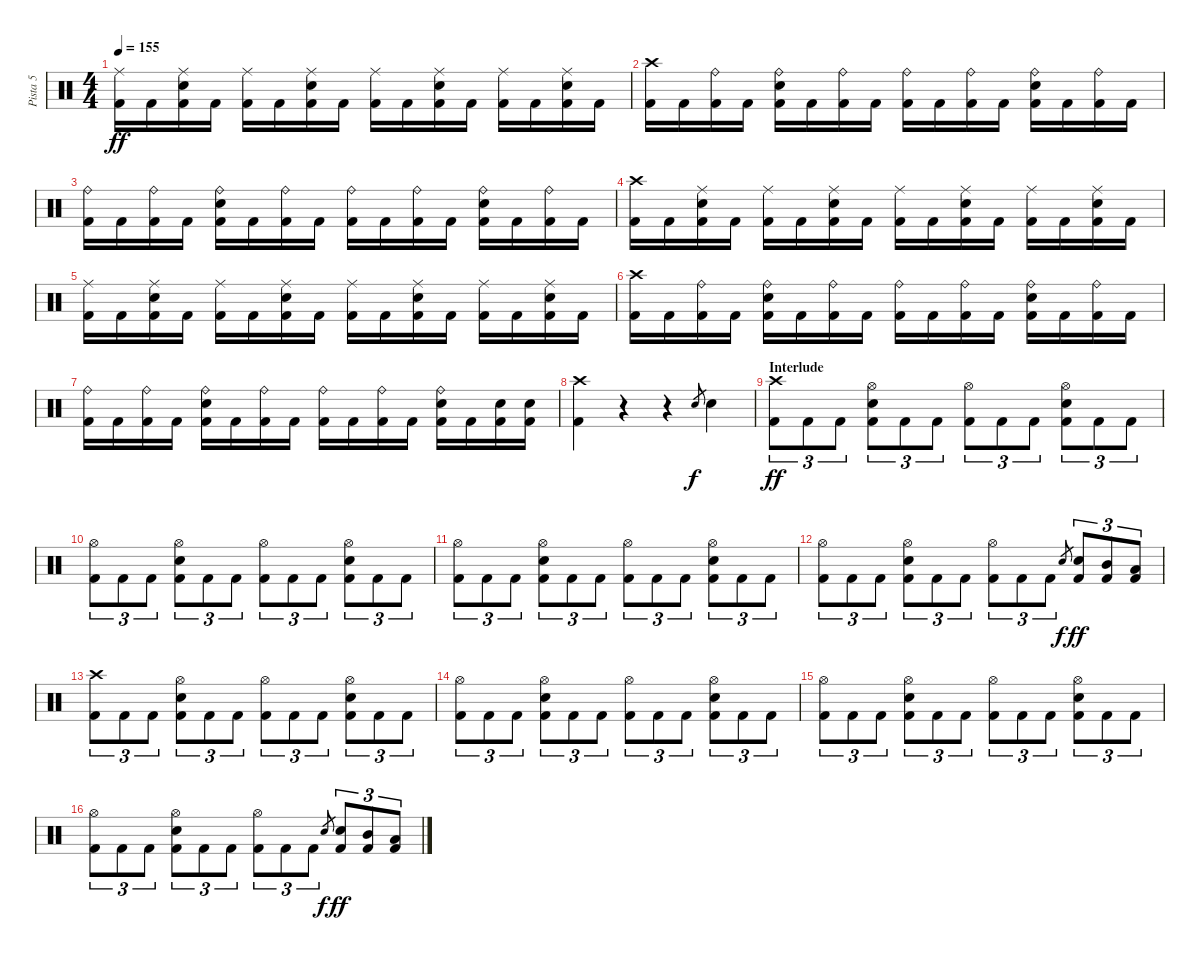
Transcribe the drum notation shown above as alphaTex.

\track ("Pista 5" "Pista 5") {instrument percussion}
\staff {score}
\articulation defaults
\ts (4 4)
\tempo 155
\clef neutral
\ks c
("Ride (middle)" "Kick (hit) 2").16{dy ff} "Kick (hit) 2".16 ("Ride (middle)" "Electric Snare (hit)" "Kick (hit) 2").16 "Kick (hit) 2".16 ("Ride (middle)" "Kick (hit) 2").16 "Kick (hit) 2".16 ("Ride (middle)" "Electric Snare (hit)" "Kick (hit) 2").16 "Kick (hit) 2".16 ("Ride (middle)" "Kick (hit) 2").16 "Kick (hit) 2".16 ("Ride (middle)" "Electric Snare (hit)" "Kick (hit) 2").16 "Kick (hit) 2".16 ("Ride (middle)" "Kick (hit) 2").16 "Kick (hit) 2".16 ("Ride (middle)" "Electric Snare (hit)" "Kick (hit) 2").16 "Kick (hit) 2".16 |
("Crash high (hit)" "Kick (hit) 2").16 "Kick (hit) 2".16 ("Ride (bell)" "Kick (hit) 2").16 "Kick (hit) 2".16 ("Ride (bell)" "Electric Snare (hit)" "Kick (hit) 2").16 "Kick (hit) 2".16 ("Ride (bell)" "Kick (hit) 2").16 "Kick (hit) 2".16 ("Ride (bell)" "Kick (hit) 2").16 "Kick (hit) 2".16 ("Ride (bell)" "Kick (hit) 2").16 "Kick (hit) 2".16 ("Ride (bell)" "Electric Snare (hit)" "Kick (hit) 2").16 "Kick (hit) 2".16 ("Ride (bell)" "Kick (hit) 2").16 "Kick (hit) 2".16 |
("Ride (bell)" "Kick (hit) 2").16 "Kick (hit) 2".16 ("Ride (bell)" "Kick (hit) 2").16 "Kick (hit) 2".16 ("Ride (bell)" "Electric Snare (hit)" "Kick (hit) 2").16 "Kick (hit) 2".16 ("Ride (bell)" "Kick (hit) 2").16 "Kick (hit) 2".16 ("Ride (bell)" "Kick (hit) 2").16 "Kick (hit) 2".16 ("Ride (bell)" "Kick (hit) 2").16 "Kick (hit) 2".16 ("Ride (bell)" "Electric Snare (hit)" "Kick (hit) 2").16 "Kick (hit) 2".16 ("Ride (bell)" "Kick (hit) 2").16 "Kick (hit) 2".16 |
("Crash high (hit)" "Kick (hit) 2").16 "Kick (hit) 2".16 ("Ride (middle)" "Electric Snare (hit)" "Kick (hit) 2").16 "Kick (hit) 2".16 ("Ride (middle)" "Kick (hit) 2").16 "Kick (hit) 2".16 ("Ride (middle)" "Electric Snare (hit)" "Kick (hit) 2").16 "Kick (hit) 2".16 ("Ride (middle)" "Kick (hit) 2").16 "Kick (hit) 2".16 ("Ride (middle)" "Electric Snare (hit)" "Kick (hit) 2").16 "Kick (hit) 2".16 ("Ride (middle)" "Kick (hit) 2").16 "Kick (hit) 2".16 ("Ride (middle)" "Electric Snare (hit)" "Kick (hit) 2").16 "Kick (hit) 2".16 |
("Ride (middle)" "Kick (hit) 2").16 "Kick (hit) 2".16 ("Ride (middle)" "Electric Snare (hit)" "Kick (hit) 2").16 "Kick (hit) 2".16 ("Ride (middle)" "Kick (hit) 2").16 "Kick (hit) 2".16 ("Ride (middle)" "Electric Snare (hit)" "Kick (hit) 2").16 "Kick (hit) 2".16 ("Ride (middle)" "Kick (hit) 2").16 "Kick (hit) 2".16 ("Ride (middle)" "Electric Snare (hit)" "Kick (hit) 2").16 "Kick (hit) 2".16 ("Ride (middle)" "Kick (hit) 2").16 "Kick (hit) 2".16 ("Ride (middle)" "Electric Snare (hit)" "Kick (hit) 2").16 "Kick (hit) 2".16 |
("Crash high (hit)" "Kick (hit) 2").16 "Kick (hit) 2".16 ("Ride (bell)" "Kick (hit) 2").16 "Kick (hit) 2".16 ("Ride (bell)" "Electric Snare (hit)" "Kick (hit) 2").16 "Kick (hit) 2".16 ("Ride (bell)" "Kick (hit) 2").16 "Kick (hit) 2".16 ("Ride (bell)" "Kick (hit) 2").16 "Kick (hit) 2".16 ("Ride (bell)" "Kick (hit) 2").16 "Kick (hit) 2".16 ("Ride (bell)" "Electric Snare (hit)" "Kick (hit) 2").16 "Kick (hit) 2".16 ("Ride (bell)" "Kick (hit) 2").16 "Kick (hit) 2".16 |
("Ride (bell)" "Kick (hit) 2").16 "Kick (hit) 2".16 ("Ride (bell)" "Kick (hit) 2").16 "Kick (hit) 2".16 ("Ride (bell)" "Electric Snare (hit)" "Kick (hit) 2").16 "Kick (hit) 2".16 ("Ride (bell)" "Kick (hit) 2").16 "Kick (hit) 2".16 ("Ride (bell)" "Kick (hit) 2").16 "Kick (hit) 2".16 ("Ride (bell)" "Kick (hit) 2").16 "Kick (hit) 2".16 ("Ride (bell)" "Electric Snare (hit)" "Kick (hit) 2").16 "Kick (hit) 2".16 ("Electric Snare (hit)" "Kick (hit) 2").16 ("Electric Snare (hit)" "Kick (hit) 2").16 |
("Crash high (hit)" "Kick (hit) 2").4 r.4 r.4 "Electric Snare (hit)".8{gr dy f} "Electric Snare (hit)".4 |
\section ("" "Interlude")
("Crash high (hit)" "Kick (hit) 2").8{tu (3 2) dy ff} "Kick (hit) 2".8{tu (3 2)} "Kick (hit) 2".8{tu (3 2)} ("Hi-Hat (open)" "Electric Snare (hit)" "Kick (hit) 2").8{tu (3 2)} "Kick (hit) 2".8{tu (3 2)} "Kick (hit) 2".8{tu (3 2)} ("Hi-Hat (open)" "Kick (hit) 2").8{tu (3 2)} "Kick (hit) 2".8{tu (3 2)} "Kick (hit) 2".8{tu (3 2)} ("Hi-Hat (open)" "Electric Snare (hit)" "Kick (hit) 2").8{tu (3 2)} "Kick (hit) 2".8{tu (3 2)} "Kick (hit) 2".8{tu (3 2)} |
("Hi-Hat (open)" "Kick (hit) 2").8{tu (3 2)} "Kick (hit) 2".8{tu (3 2)} "Kick (hit) 2".8{tu (3 2)} ("Hi-Hat (open)" "Electric Snare (hit)" "Kick (hit) 2").8{tu (3 2)} "Kick (hit) 2".8{tu (3 2)} "Kick (hit) 2".8{tu (3 2)} ("Hi-Hat (open)" "Kick (hit) 2").8{tu (3 2)} "Kick (hit) 2".8{tu (3 2)} "Kick (hit) 2".8{tu (3 2)} ("Hi-Hat (open)" "Electric Snare (hit)" "Kick (hit) 2").8{tu (3 2)} "Kick (hit) 2".8{tu (3 2)} "Kick (hit) 2".8{tu (3 2)} |
("Hi-Hat (open)" "Kick (hit) 2").8{tu (3 2)} "Kick (hit) 2".8{tu (3 2)} "Kick (hit) 2".8{tu (3 2)} ("Hi-Hat (open)" "Electric Snare (hit)" "Kick (hit) 2").8{tu (3 2)} "Kick (hit) 2".8{tu (3 2)} "Kick (hit) 2".8{tu (3 2)} ("Hi-Hat (open)" "Kick (hit) 2").8{tu (3 2)} "Kick (hit) 2".8{tu (3 2)} "Kick (hit) 2".8{tu (3 2)} ("Hi-Hat (open)" "Electric Snare (hit)" "Kick (hit) 2").8{tu (3 2)} "Kick (hit) 2".8{tu (3 2)} "Kick (hit) 2".8{tu (3 2)} |
("Hi-Hat (open)" "Kick (hit) 2").8{tu (3 2)} "Kick (hit) 2".8{tu (3 2)} "Kick (hit) 2".8{tu (3 2)} ("Hi-Hat (open)" "Electric Snare (hit)" "Kick (hit) 2").8{tu (3 2)} "Kick (hit) 2".8{tu (3 2)} "Kick (hit) 2".8{tu (3 2)} ("Hi-Hat (open)" "Kick (hit) 2").8{tu (3 2)} "Kick (hit) 2".8{tu (3 2)} "Kick (hit) 2".8{tu (3 2)} "Electric Snare (hit)".8{gr dy f} ("Electric Snare (hit)" "Kick (hit) 2").8{tu (3 2) dy ff} ("Mid Tom (hit)" "Kick (hit) 2").8{tu (3 2)} ("Low Tom (hit)" "Kick (hit) 2").8{tu (3 2)} |
("Crash high (hit)" "Kick (hit) 2").8{tu (3 2)} "Kick (hit) 2".8{tu (3 2)} "Kick (hit) 2".8{tu (3 2)} ("Hi-Hat (open)" "Electric Snare (hit)" "Kick (hit) 2").8{tu (3 2)} "Kick (hit) 2".8{tu (3 2)} "Kick (hit) 2".8{tu (3 2)} ("Hi-Hat (open)" "Kick (hit) 2").8{tu (3 2)} "Kick (hit) 2".8{tu (3 2)} "Kick (hit) 2".8{tu (3 2)} ("Hi-Hat (open)" "Electric Snare (hit)" "Kick (hit) 2").8{tu (3 2)} "Kick (hit) 2".8{tu (3 2)} "Kick (hit) 2".8{tu (3 2)} |
("Hi-Hat (open)" "Kick (hit) 2").8{tu (3 2)} "Kick (hit) 2".8{tu (3 2)} "Kick (hit) 2".8{tu (3 2)} ("Hi-Hat (open)" "Electric Snare (hit)" "Kick (hit) 2").8{tu (3 2)} "Kick (hit) 2".8{tu (3 2)} "Kick (hit) 2".8{tu (3 2)} ("Hi-Hat (open)" "Kick (hit) 2").8{tu (3 2)} "Kick (hit) 2".8{tu (3 2)} "Kick (hit) 2".8{tu (3 2)} ("Hi-Hat (open)" "Electric Snare (hit)" "Kick (hit) 2").8{tu (3 2)} "Kick (hit) 2".8{tu (3 2)} "Kick (hit) 2".8{tu (3 2)} |
("Hi-Hat (open)" "Kick (hit) 2").8{tu (3 2)} "Kick (hit) 2".8{tu (3 2)} "Kick (hit) 2".8{tu (3 2)} ("Hi-Hat (open)" "Electric Snare (hit)" "Kick (hit) 2").8{tu (3 2)} "Kick (hit) 2".8{tu (3 2)} "Kick (hit) 2".8{tu (3 2)} ("Hi-Hat (open)" "Kick (hit) 2").8{tu (3 2)} "Kick (hit) 2".8{tu (3 2)} "Kick (hit) 2".8{tu (3 2)} ("Hi-Hat (open)" "Electric Snare (hit)" "Kick (hit) 2").8{tu (3 2)} "Kick (hit) 2".8{tu (3 2)} "Kick (hit) 2".8{tu (3 2)} |
("Hi-Hat (open)" "Kick (hit) 2").8{tu (3 2)} "Kick (hit) 2".8{tu (3 2)} "Kick (hit) 2".8{tu (3 2)} ("Hi-Hat (open)" "Electric Snare (hit)" "Kick (hit) 2").8{tu (3 2)} "Kick (hit) 2".8{tu (3 2)} "Kick (hit) 2".8{tu (3 2)} ("Hi-Hat (open)" "Kick (hit) 2").8{tu (3 2)} "Kick (hit) 2".8{tu (3 2)} "Kick (hit) 2".8{tu (3 2)} "Electric Snare (hit)".8{gr dy f} ("Electric Snare (hit)" "Kick (hit) 2").8{tu (3 2) dy ff} ("Mid Tom (hit)" "Kick (hit) 2").8{tu (3 2)} ("Low Tom (hit)" "Kick (hit) 2").8{tu (3 2)}
